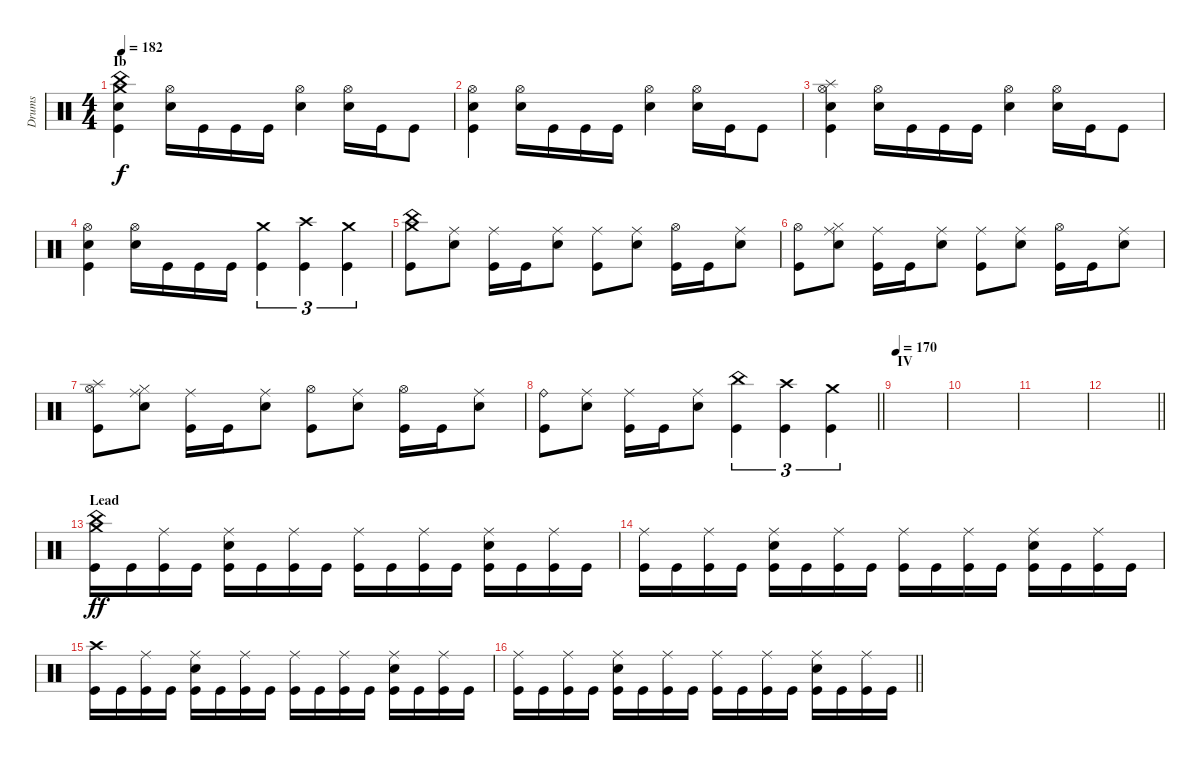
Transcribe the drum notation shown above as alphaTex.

\track ("Drums" "Drums") {instrument percussion}
\staff {score}
\articulation defaults
\ts (4 4)
\section ("" "Ib")
\tempo 182
\clef neutral
\ks c
("China (hit)" "Crash medium (hit)" "Electric Snare (hit)" "Kick (hit)").4{dy f} ("Hi-Hat (open)" "Electric Snare (hit)").16 "Kick (hit)".16 "Kick (hit)".16 "Kick (hit)".16 ("Hi-Hat (open)" "Electric Snare (hit)").4 ("Hi-Hat (open)" "Electric Snare (hit)").16 "Kick (hit)".16 "Kick (hit)".8 |
("Hi-Hat (open)" "Electric Snare (hit)" "Kick (hit)").4 ("Hi-Hat (open)" "Electric Snare (hit)").16 "Kick (hit)".16 "Kick (hit)".16 "Kick (hit)".16 ("Hi-Hat (open)" "Electric Snare (hit)").4 ("Hi-Hat (open)" "Electric Snare (hit)").16 "Kick (hit)".16 "Kick (hit)".8 |
("Splash (hit)" "Hi-Hat (open)" "Electric Snare (hit)" "Kick (hit)").4 ("Hi-Hat (open)" "Electric Snare (hit)").16 "Kick (hit)".16 "Kick (hit)".16 "Kick (hit)".16 ("Hi-Hat (open)" "Electric Snare (hit)").4 ("Hi-Hat (open)" "Electric Snare (hit)").16 "Kick (hit)".16 "Kick (hit)".8 |
("Hi-Hat (open)" "Electric Snare (hit)" "Kick (hit)").4 ("Hi-Hat (open)" "Electric Snare (hit)").16 "Kick (hit)".16 "Kick (hit)".16 "Kick (hit)".16 ("Crash medium (hit)" "Kick (hit)").4{tu (3 2)} ("Crash high (hit)" "Kick (hit)").4{tu (3 2)} ("Crash medium (hit)" "Kick (hit)").4{tu (3 2)} |
("China (hit)" "Crash medium (hit)" "Kick (hit)").8 ("Ride (middle)" "Electric Snare (hit)").8 ("Ride (middle)" "Kick (hit)").16 "Kick (hit)".16 ("Ride (middle)" "Electric Snare (hit)").8 ("Ride (middle)" "Kick (hit)").8 ("Ride (middle)" "Electric Snare (hit)").8 ("Hi-Hat (open)" "Kick (hit)").16 "Kick (hit)".16 ("Ride (middle)" "Electric Snare (hit)").8 |
("Hi-Hat (open)" "Kick (hit)").8 ("Ride (middle)" "Hi-Hat (closed)" "Electric Snare (hit)").8 ("Ride (middle)" "Kick (hit)").16 "Kick (hit)".16 ("Ride (middle)" "Electric Snare (hit)").8 ("Ride (middle)" "Kick (hit)").8 ("Ride (middle)" "Electric Snare (hit)").8 ("Hi-Hat (open)" "Kick (hit)").16 "Kick (hit)".16 ("Ride (middle)" "Electric Snare (hit)").8 |
("Splash (hit)" "Hi-Hat (open)" "Kick (hit)").8 ("Ride (middle)" "Hi-Hat (closed)" "Electric Snare (hit)").8 ("Ride (middle)" "Kick (hit)").16 "Kick (hit)".16 ("Ride (middle)" "Electric Snare (hit)").8 ("Hi-Hat (open)" "Kick (hit)").8 ("Ride (middle)" "Electric Snare (hit)").8 ("Hi-Hat (open)" "Kick (hit)").16 "Kick (hit)".16 ("Ride (middle)" "Electric Snare (hit)").8 |
\barLineRight lightlight
("Ride (bell)" "Kick (hit)").8 ("Ride (middle)" "Electric Snare (hit)").8 ("Ride (middle)" "Kick (hit)").16 "Kick (hit)".16 ("Ride (middle)" "Electric Snare (hit)").8 ("China (hit)" "Kick (hit)").4{tu (3 2)} ("Crash high (hit)" "Kick (hit)").4{tu (3 2)} ("Crash medium (hit)" "Kick (hit)").4{tu (3 2)} |
\section ("" "IV")
\tempo 170
|
|
|
\barLineRight lightlight
|
\section ("" "Lead")
("Crash medium (hit)" "China (hit)" "Kick (hit)").16{dy ff} "Kick (hit)".16 ("Ride (middle)" "Kick (hit)").16 "Kick (hit)".16 ("Ride (middle)" "Electric Snare (hit)" "Kick (hit)").16 "Kick (hit)".16 ("Ride (middle)" "Kick (hit)").16 "Kick (hit)".16 ("Ride (middle)" "Kick (hit)").16 "Kick (hit)".16 ("Ride (middle)" "Kick (hit)").16 "Kick (hit)".16 ("Ride (middle)" "Electric Snare (hit)" "Kick (hit)").16 "Kick (hit)".16 ("Ride (middle)" "Kick (hit)").16 "Kick (hit)".16 |
("Ride (middle)" "Kick (hit)").16 "Kick (hit)".16 ("Ride (middle)" "Kick (hit)").16 "Kick (hit)".16 ("Ride (middle)" "Electric Snare (hit)" "Kick (hit)").16 "Kick (hit)".16 ("Ride (middle)" "Kick (hit)").16 "Kick (hit)".16 ("Ride (middle)" "Kick (hit)").16 "Kick (hit)".16 ("Ride (middle)" "Kick (hit)").16 "Kick (hit)".16 ("Ride (middle)" "Electric Snare (hit)" "Kick (hit)").16 "Kick (hit)".16 ("Ride (middle)" "Kick (hit)").16 "Kick (hit)".16 |
("Crash high (hit)" "Kick (hit)").16 "Kick (hit)".16 ("Ride (middle)" "Kick (hit)").16 "Kick (hit)".16 ("Ride (middle)" "Electric Snare (hit)" "Kick (hit)").16 "Kick (hit)".16 ("Ride (middle)" "Kick (hit)").16 "Kick (hit)".16 ("Ride (middle)" "Kick (hit)").16 "Kick (hit)".16 ("Ride (middle)" "Kick (hit)").16 "Kick (hit)".16 ("Ride (middle)" "Electric Snare (hit)" "Kick (hit)").16 "Kick (hit)".16 ("Ride (middle)" "Kick (hit)").16 "Kick (hit)".16 |
\barLineRight lightlight
("Ride (middle)" "Kick (hit)").16 "Kick (hit)".16 ("Ride (middle)" "Kick (hit)").16 "Kick (hit)".16 ("Ride (middle)" "Electric Snare (hit)" "Kick (hit)").16 "Kick (hit)".16 ("Ride (middle)" "Kick (hit)").16 "Kick (hit)".16 ("Ride (middle)" "Kick (hit)").16 "Kick (hit)".16 ("Ride (middle)" "Kick (hit)").16 "Kick (hit)".16 ("Ride (middle)" "Electric Snare (hit)" "Kick (hit)").16 "Kick (hit)".16 ("Ride (middle)" "Kick (hit)").16 "Kick (hit)".16
